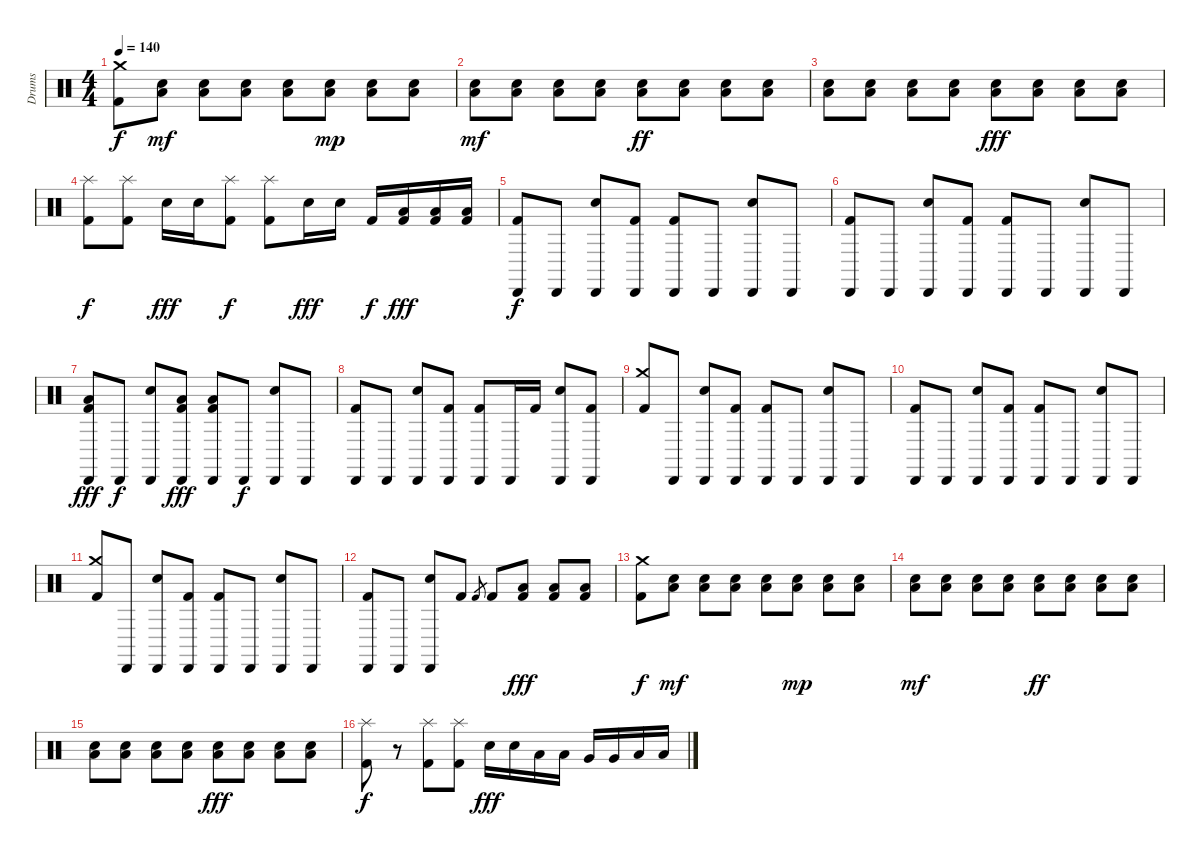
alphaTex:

\track ("Drums" "Drums") {instrument percussion}
\staff {score}
\articulation defaults
\ts (4 4)
\tempo 140
\clef neutral
\ks c
("Crash medium (hit)" "Kick (hit) 2").8{dy f} ("Electric Snare (hit)" "Low Floor Tom (hit)").8{dy mf} ("Electric Snare (hit)" "Low Floor Tom (hit)").8 ("Electric Snare (hit)" "Low Floor Tom (hit)").8 ("Electric Snare (hit)" "Low Floor Tom (hit)").8 ("Electric Snare (hit)" "Low Floor Tom (hit)").8{dy mp} ("Electric Snare (hit)" "Low Floor Tom (hit)").8 ("Electric Snare (hit)" "Low Floor Tom (hit)").8 |
("Electric Snare (hit)" "Low Floor Tom (hit)").8{dy mf} ("Electric Snare (hit)" "Low Floor Tom (hit)").8 ("Electric Snare (hit)" "Low Floor Tom (hit)").8 ("Electric Snare (hit)" "Low Floor Tom (hit)").8 ("Electric Snare (hit)" "Low Floor Tom (hit)").8{dy ff} ("Electric Snare (hit)" "Low Floor Tom (hit)").8 ("Electric Snare (hit)" "Low Floor Tom (hit)").8 ("Electric Snare (hit)" "Low Floor Tom (hit)").8 |
("Electric Snare (hit)" "Low Floor Tom (hit)").8 ("Electric Snare (hit)" "Low Floor Tom (hit)").8 ("Electric Snare (hit)" "Low Floor Tom (hit)").8 ("Electric Snare (hit)" "Low Floor Tom (hit)").8 ("Electric Snare (hit)" "Low Floor Tom (hit)").8{dy fff} ("Electric Snare (hit)" "Low Floor Tom (hit)").8 ("Electric Snare (hit)" "Low Floor Tom (hit)").8 ("Electric Snare (hit)" "Low Floor Tom (hit)").8 |
("Splash (hit)" "Kick (hit) 2").8{dy f} ("Splash (hit)" "Kick (hit) 2").8 "Electric Snare (hit)".16{dy fff} "Electric Snare (hit)".16 ("Splash (hit)" "Kick (hit) 2").8{dy f} ("Splash (hit)" "Kick (hit) 2").8 "Electric Snare (hit)".16{dy fff} "Electric Snare (hit)".16 "Kick (hit) 2".16{dy f} ("Low Floor Tom (hit)" "Kick (hit) 2").16{dy fff} ("Low Floor Tom (hit)" "Kick (hit) 2").16 ("Low Floor Tom (hit)" "Kick (hit) 2").16 |
("Cabasa (hit)" "Kick (hit) 2").8{dy f} "Cabasa (hit)".8 ("Cabasa (hit)" "Electric Snare (hit)").8 ("Cabasa (hit)" "Kick (hit) 2").8 ("Cabasa (hit)" "Kick (hit) 2").8 "Cabasa (hit)".8 ("Cabasa (hit)" "Electric Snare (hit)").8 "Cabasa (hit)".8 |
("Cabasa (hit)" "Kick (hit) 2").8 "Cabasa (hit)".8 ("Cabasa (hit)" "Electric Snare (hit)").8 ("Cabasa (hit)" "Kick (hit) 2").8 ("Cabasa (hit)" "Kick (hit) 2").8 "Cabasa (hit)".8 ("Cabasa (hit)" "Electric Snare (hit)").8 "Cabasa (hit)".8 |
("Cabasa (hit)" "Low Floor Tom (hit)" "Kick (hit) 2").8{dy fff} "Cabasa (hit)".8{dy f} ("Cabasa (hit)" "Electric Snare (hit)").8 ("Cabasa (hit)" "Low Floor Tom (hit)" "Kick (hit) 2").8{dy fff} ("Cabasa (hit)" "Low Floor Tom (hit)" "Kick (hit) 2").8 "Cabasa (hit)".8{dy f} ("Cabasa (hit)" "Electric Snare (hit)").8 "Cabasa (hit)".8 |
("Cabasa (hit)" "Kick (hit) 2").8 "Cabasa (hit)".8 ("Cabasa (hit)" "Electric Snare (hit)").8 ("Cabasa (hit)" "Kick (hit) 2").8 ("Cabasa (hit)" "Kick (hit) 2").8 "Cabasa (hit)".16 "Kick (hit) 2".16 ("Cabasa (hit)" "Electric Snare (hit)").8 ("Cabasa (hit)" "Kick (hit) 2").8 |
("Crash medium (hit)" "Kick (hit) 2").8 "Cabasa (hit)".8 ("Cabasa (hit)" "Electric Snare (hit)").8 ("Cabasa (hit)" "Kick (hit) 2").8 ("Cabasa (hit)" "Kick (hit) 2").8 "Cabasa (hit)".8 ("Cabasa (hit)" "Electric Snare (hit)").8 "Cabasa (hit)".8 |
("Cabasa (hit)" "Kick (hit) 2").8 "Cabasa (hit)".8 ("Cabasa (hit)" "Electric Snare (hit)").8 ("Cabasa (hit)" "Kick (hit) 2").8 ("Cabasa (hit)" "Kick (hit) 2").8 "Cabasa (hit)".8 ("Cabasa (hit)" "Electric Snare (hit)").8 "Cabasa (hit)".8 |
("Crash medium (hit)" "Kick (hit) 2").8 "Cabasa (hit)".8 ("Cabasa (hit)" "Electric Snare (hit)").8 ("Cabasa (hit)" "Kick (hit) 2").8 ("Cabasa (hit)" "Kick (hit) 2").8 "Cabasa (hit)".8 ("Cabasa (hit)" "Electric Snare (hit)").8 "Cabasa (hit)".8 |
("Cabasa (hit)" "Kick (hit) 2").8 "Cabasa (hit)".8 ("Cabasa (hit)" "Electric Snare (hit)").8 "Kick (hit) 2".8 "Kick (hit) 2".8{gr} "Kick (hit) 2".8 ("Low Floor Tom (hit)" "Kick (hit) 2").8{dy fff} ("Low Floor Tom (hit)" "Kick (hit) 2").8 ("Low Floor Tom (hit)" "Kick (hit) 2").8 |
("Crash medium (hit)" "Kick (hit) 2").8{dy f} ("Electric Snare (hit)" "Low Floor Tom (hit)").8{dy mf} ("Electric Snare (hit)" "Low Floor Tom (hit)").8 ("Electric Snare (hit)" "Low Floor Tom (hit)").8 ("Electric Snare (hit)" "Low Floor Tom (hit)").8 ("Electric Snare (hit)" "Low Floor Tom (hit)").8{dy mp} ("Electric Snare (hit)" "Low Floor Tom (hit)").8 ("Electric Snare (hit)" "Low Floor Tom (hit)").8 |
("Electric Snare (hit)" "Low Floor Tom (hit)").8{dy mf} ("Electric Snare (hit)" "Low Floor Tom (hit)").8 ("Electric Snare (hit)" "Low Floor Tom (hit)").8 ("Electric Snare (hit)" "Low Floor Tom (hit)").8 ("Electric Snare (hit)" "Low Floor Tom (hit)").8{dy ff} ("Electric Snare (hit)" "Low Floor Tom (hit)").8 ("Electric Snare (hit)" "Low Floor Tom (hit)").8 ("Electric Snare (hit)" "Low Floor Tom (hit)").8 |
("Electric Snare (hit)" "Low Floor Tom (hit)").8 ("Electric Snare (hit)" "Low Floor Tom (hit)").8 ("Electric Snare (hit)" "Low Floor Tom (hit)").8 ("Electric Snare (hit)" "Low Floor Tom (hit)").8 ("Electric Snare (hit)" "Low Floor Tom (hit)").8{dy fff} ("Electric Snare (hit)" "Low Floor Tom (hit)").8 ("Electric Snare (hit)" "Low Floor Tom (hit)").8 ("Electric Snare (hit)" "Low Floor Tom (hit)").8 |
("Splash (hit)" "Kick (hit) 2").8{dy f} r.8 ("Splash (hit)" "Kick (hit) 2").8 ("Splash (hit)" "Kick (hit) 2").8 "Electric Snare (hit)".16{dy fff} "Electric Snare (hit)".16 "Low Tom (hit)".16 "Low Tom (hit)".16 "Very Low Tom (hit)".16 "Very Low Tom (hit)".16 "Low Floor Tom (hit)".16 "Low Floor Tom (hit)".16
